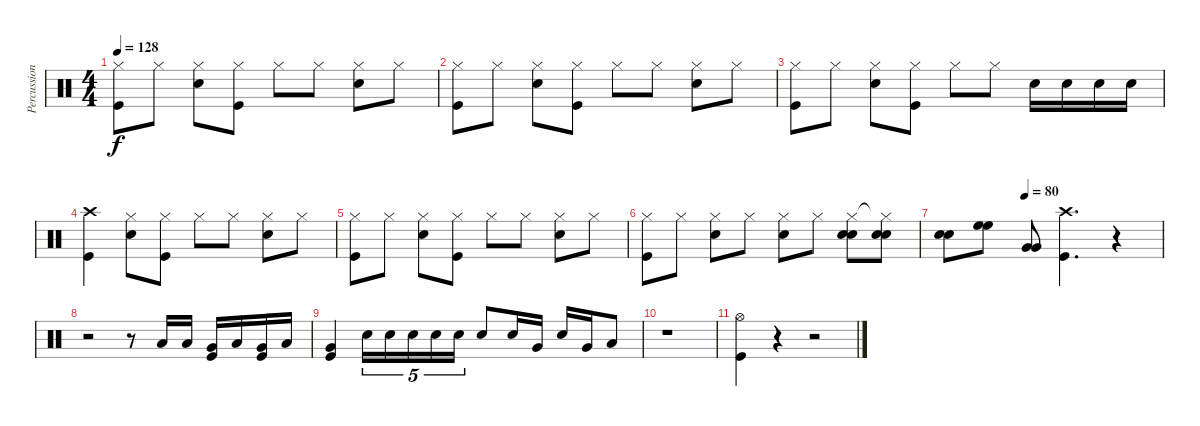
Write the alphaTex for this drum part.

\track ("Percussion" "Percussion") {instrument percussion}
\staff {score}
\articulation defaults
\ts (4 4)
\tempo 128
\clef neutral
\ks c
("Hi-Hat (closed)" "Kick (hit)").8{dy f} "Hi-Hat (closed)".8 ("Hi-Hat (closed)" "Snare (hit) 2").8 ("Hi-Hat (closed)" "Kick (hit)").8 "Hi-Hat (closed)".8 "Hi-Hat (closed)".8 ("Hi-Hat (closed)" "Snare (hit) 2").8 "Hi-Hat (closed)".8 |
("Hi-Hat (closed)" "Kick (hit)").8 "Hi-Hat (closed)".8 ("Hi-Hat (closed)" "Snare (hit) 2").8 ("Hi-Hat (closed)" "Kick (hit)").8 "Hi-Hat (closed)".8 "Hi-Hat (closed)".8 ("Hi-Hat (closed)" "Snare (hit) 2").8 "Hi-Hat (closed)".8 |
("Hi-Hat (closed)" "Kick (hit)").8 "Hi-Hat (closed)".8 ("Hi-Hat (closed)" "Snare (hit) 2").8 ("Hi-Hat (closed)" "Kick (hit)").8 "Hi-Hat (closed)".8 "Hi-Hat (closed)".8 "Snare (hit) 2".16 "Snare (hit) 2".16 "Snare (hit) 2".16 "Snare (hit) 2".16 |
("Crash high (hit)" "Kick (hit)").4 ("Hi-Hat (closed)" "Snare (hit) 2").8 ("Hi-Hat (closed)" "Kick (hit)").8 "Hi-Hat (closed)".8 "Hi-Hat (closed)".8 ("Hi-Hat (closed)" "Snare (hit) 2").8 "Hi-Hat (closed)".8 |
("Hi-Hat (closed)" "Kick (hit)").8 "Hi-Hat (closed)".8 ("Hi-Hat (closed)" "Snare (hit) 2").8 ("Hi-Hat (closed)" "Kick (hit)").8 "Hi-Hat (closed)".8 "Hi-Hat (closed)".8 ("Hi-Hat (closed)" "Snare (hit) 2").8 "Hi-Hat (closed)".8 |
("Hi-Hat (closed)" "Kick (hit)").8 "Hi-Hat (closed)".8 ("Hi-Hat (closed)" "Snare (hit) 2").8 "Hi-Hat (closed)".8 ("Hi-Hat (closed)" "Snare (hit) 2").8 "Hi-Hat (closed)".8 ("Hi-Hat (closed)" "Snare (hit) 2" "Snare (hit) 2").8 ("Hi-Hat (closed)"{t} "Snare (hit) 2" "Snare (hit) 2").8 |
\tempo (80 0.375)
("Snare (hit) 2" "Snare (hit) 2").8 ("High Floor Tom (hit)" "High Floor Tom (hit)").8 ("Very Low Tom (hit)" "Very Low Tom (hit)").8 ("Crash high (hit)" "Kick (hit)").4{d} r.4 |
r.2 r.8 "Low Floor Tom (hit)".16 "Low Floor Tom (hit)".16 ("Very Low Tom (hit)" "Kick (hit)").16 "Low Floor Tom (hit)".16 ("Very Low Tom (hit)" "Kick (hit)").16 "Low Floor Tom (hit)".16 |
("Very Low Tom (hit)" "Kick (hit)").4 "Snare (hit) 2".16{tu (5 4)} "Snare (hit) 2".16{tu (5 4)} "Snare (hit) 2".16{tu (5 4)} "Snare (hit) 2".16{tu (5 4)} "Snare (hit) 2".16{tu (5 4)} "Snare (hit) 2".8 "Snare (hit) 2".16 "Very Low Tom (hit)".16 "Snare (hit) 2".16 "Very Low Tom (hit)".16 "Low Floor Tom (hit)".8 |
r.1 |
("Hi-Hat (open)" "Kick (hit)").4 r.4 r.2
